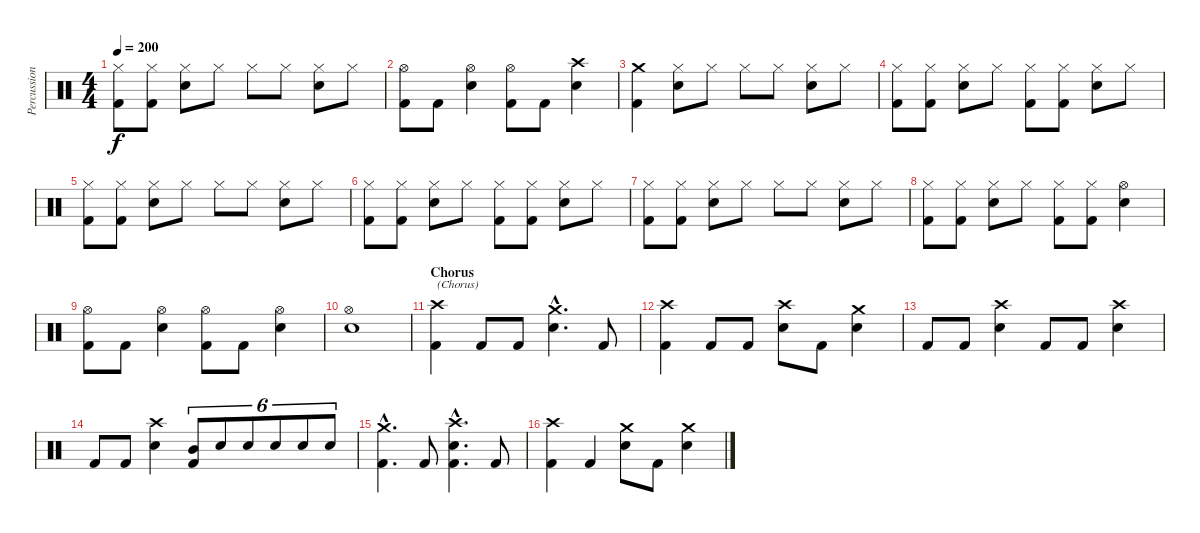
\track ("Percussion" "Percussion") {instrument percussion}
\staff {score}
\articulation defaults
\ts (4 4)
\tempo 200
\clef neutral
\ks c
("Hi-Hat (closed)" "Kick (hit) 2").8{dy f} ("Hi-Hat (closed)" "Kick (hit) 2").8 ("Hi-Hat (closed)" "Electric Snare (hit)").8 "Hi-Hat (closed)".8 "Hi-Hat (closed)".8 "Hi-Hat (closed)".8 ("Hi-Hat (closed)" "Electric Snare (hit)").8 "Hi-Hat (closed)".8 |
("Hi-Hat (open)" "Kick (hit) 2").8 "Kick (hit) 2".8 ("Hi-Hat (open)" "Electric Snare (hit)").4 ("Hi-Hat (open)" "Kick (hit) 2").8 "Kick (hit) 2".8 ("Crash high (hit)" "Electric Snare (hit)").4 |
("Crash medium (hit)" "Kick (hit) 2").4 ("Hi-Hat (closed)" "Electric Snare (hit)").8 "Hi-Hat (closed)".8 "Hi-Hat (closed)".8 "Hi-Hat (closed)".8 ("Hi-Hat (closed)" "Electric Snare (hit)").8 "Hi-Hat (closed)".8 |
("Hi-Hat (closed)" "Kick (hit) 2").8 ("Hi-Hat (closed)" "Kick (hit) 2").8 ("Hi-Hat (closed)" "Electric Snare (hit)").8 "Hi-Hat (closed)".8 ("Hi-Hat (closed)" "Kick (hit) 2").8 ("Hi-Hat (closed)" "Kick (hit) 2").8 ("Hi-Hat (closed)" "Electric Snare (hit)").8 "Hi-Hat (closed)".8 |
("Hi-Hat (closed)" "Kick (hit) 2").8 ("Hi-Hat (closed)" "Kick (hit) 2").8 ("Hi-Hat (closed)" "Electric Snare (hit)").8 "Hi-Hat (closed)".8 "Hi-Hat (closed)".8 "Hi-Hat (closed)".8 ("Hi-Hat (closed)" "Electric Snare (hit)").8 "Hi-Hat (closed)".8 |
("Hi-Hat (closed)" "Kick (hit) 2").8 ("Hi-Hat (closed)" "Kick (hit) 2").8 ("Hi-Hat (closed)" "Electric Snare (hit)").8 "Hi-Hat (closed)".8 ("Hi-Hat (closed)" "Kick (hit) 2").8 ("Hi-Hat (closed)" "Kick (hit) 2").8 ("Hi-Hat (closed)" "Electric Snare (hit)").8 "Hi-Hat (closed)".8 |
("Hi-Hat (closed)" "Kick (hit) 2").8 ("Hi-Hat (closed)" "Kick (hit) 2").8 ("Hi-Hat (closed)" "Electric Snare (hit)").8 "Hi-Hat (closed)".8 "Hi-Hat (closed)".8 "Hi-Hat (closed)".8 ("Hi-Hat (closed)" "Electric Snare (hit)").8 "Hi-Hat (closed)".8 |
("Hi-Hat (closed)" "Kick (hit) 2").8 ("Hi-Hat (closed)" "Kick (hit) 2").8 ("Hi-Hat (closed)" "Electric Snare (hit)").8 "Hi-Hat (closed)".8 ("Hi-Hat (closed)" "Kick (hit) 2").8 ("Hi-Hat (closed)" "Kick (hit) 2").8 ("Hi-Hat (open)" "Electric Snare (hit)").4 |
("Hi-Hat (open)" "Kick (hit) 2").8 "Kick (hit) 2".8 ("Hi-Hat (open)" "Electric Snare (hit)").4 ("Hi-Hat (open)" "Kick (hit) 2").8 "Kick (hit) 2".8 ("Hi-Hat (open)" "Electric Snare (hit)").4 |
("Hi-Hat (open)" "Electric Snare (hit)").1 |
\section ("" "Chorus")
("Crash high (hit)" "Kick (hit) 2").4{txt "(Chorus)"} "Kick (hit) 2".8 "Kick (hit) 2".8 ("Crash medium (hit)"{hac} "Electric Snare (hit)"{hac}).4{d} "Kick (hit) 2".8 |
("Crash high (hit)" "Kick (hit) 2").4 "Kick (hit) 2".8 "Kick (hit) 2".8 ("Crash high (hit)" "Electric Snare (hit)").8 "Kick (hit) 2".8 ("Crash medium (hit)" "Electric Snare (hit)").4 |
"Kick (hit) 2".8 "Kick (hit) 2".8 ("Crash high (hit)" "Electric Snare (hit)").4 "Kick (hit) 2".8 "Kick (hit) 2".8 ("Crash high (hit)" "Electric Snare (hit)").4 |
"Kick (hit) 2".8 "Kick (hit) 2".8 ("Crash high (hit)" "Electric Snare (hit)").4 ("Mid Tom (hit)" "Kick (hit) 2").8{tu (6 4)} "Electric Snare (hit)".8{tu (6 4)} "Electric Snare (hit)".8{tu (6 4)} "Electric Snare (hit)".8{tu (6 4)} "Electric Snare (hit)".8{tu (6 4)} "Electric Snare (hit)".8{tu (6 4)} |
("Crash medium (hit)"{hac} "Kick (hit) 2"{hac}).4{d} "Kick (hit) 2".8 ("Crash high (hit)"{hac} "Electric Snare (hit)"{hac} "Kick (hit) 2"{hac}).4{d} "Kick (hit) 2".8 |
("Crash high (hit)" "Kick (hit) 2").4 "Kick (hit) 2".4 ("Crash medium (hit)" "Electric Snare (hit)").8 "Kick (hit) 2".8 ("Crash medium (hit)" "Electric Snare (hit)").4
